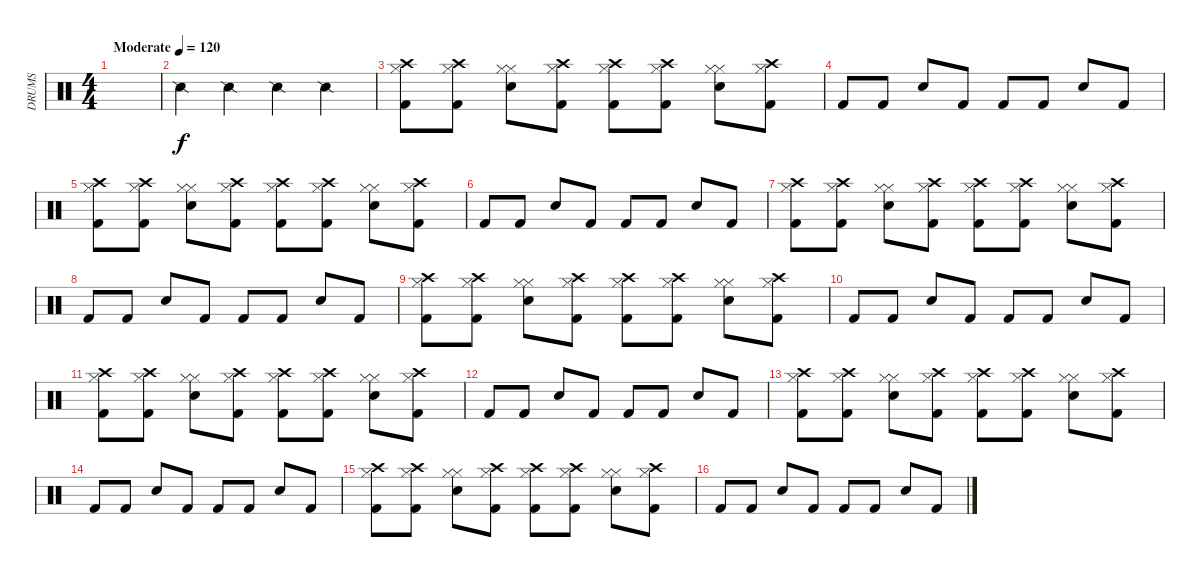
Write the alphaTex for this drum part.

\track ("DRUMS" "DRUMS") {instrument percussion}
\staff {score}
\articulation defaults
\ts (4 4)
\tempo (120 "Moderate")
\clef neutral
\ks c
|
"Snare (side stick) 2".4 "Snare (side stick) 2".4 "Snare (side stick) 2".4 "Snare (side stick) 2".4 |
("Kick (hit) 2" "Crash high (hit)" "Hi-Hat (closed)").8 ("Kick (hit) 2" "Crash high (hit)" "Hi-Hat (closed)").8 ("Snare (hit) 2" "Hi-Hat (closed)" "Hi-Hat (closed)").8 ("Kick (hit) 2" "Crash high (hit)" "Hi-Hat (closed)").8 ("Kick (hit) 2" "Crash high (hit)" "Hi-Hat (closed)").8 ("Kick (hit) 2" "Crash high (hit)" "Hi-Hat (closed)").8 ("Snare (hit) 2" "Hi-Hat (closed)" "Hi-Hat (closed)").8 ("Kick (hit) 2" "Crash high (hit)" "Hi-Hat (closed)").8 |
"Kick (hit) 2".8 "Kick (hit) 2".8 "Snare (hit) 2".8 "Kick (hit) 2".8 "Kick (hit) 2".8 "Kick (hit) 2".8 "Snare (hit) 2".8 "Kick (hit) 2".8 |
("Kick (hit) 2" "Crash high (hit)" "Hi-Hat (closed)").8 ("Kick (hit) 2" "Crash high (hit)" "Hi-Hat (closed)").8 ("Snare (hit) 2" "Hi-Hat (closed)" "Hi-Hat (closed)").8 ("Kick (hit) 2" "Crash high (hit)" "Hi-Hat (closed)").8 ("Kick (hit) 2" "Crash high (hit)" "Hi-Hat (closed)").8 ("Kick (hit) 2" "Crash high (hit)" "Hi-Hat (closed)").8 ("Snare (hit) 2" "Hi-Hat (closed)" "Hi-Hat (closed)").8 ("Kick (hit) 2" "Crash high (hit)" "Hi-Hat (closed)").8 |
"Kick (hit) 2".8 "Kick (hit) 2".8 "Snare (hit) 2".8 "Kick (hit) 2".8 "Kick (hit) 2".8 "Kick (hit) 2".8 "Snare (hit) 2".8 "Kick (hit) 2".8 |
("Kick (hit) 2" "Crash high (hit)" "Hi-Hat (closed)").8 ("Kick (hit) 2" "Crash high (hit)" "Hi-Hat (closed)").8 ("Snare (hit) 2" "Hi-Hat (closed)" "Hi-Hat (closed)").8 ("Kick (hit) 2" "Crash high (hit)" "Hi-Hat (closed)").8 ("Kick (hit) 2" "Crash high (hit)" "Hi-Hat (closed)").8 ("Kick (hit) 2" "Crash high (hit)" "Hi-Hat (closed)").8 ("Snare (hit) 2" "Hi-Hat (closed)" "Hi-Hat (closed)").8 ("Kick (hit) 2" "Crash high (hit)" "Hi-Hat (closed)").8 |
"Kick (hit) 2".8 "Kick (hit) 2".8 "Snare (hit) 2".8 "Kick (hit) 2".8 "Kick (hit) 2".8 "Kick (hit) 2".8 "Snare (hit) 2".8 "Kick (hit) 2".8 |
("Kick (hit) 2" "Crash high (hit)" "Hi-Hat (closed)").8 ("Kick (hit) 2" "Crash high (hit)" "Hi-Hat (closed)").8 ("Snare (hit) 2" "Hi-Hat (closed)" "Hi-Hat (closed)").8 ("Kick (hit) 2" "Crash high (hit)" "Hi-Hat (closed)").8 ("Kick (hit) 2" "Crash high (hit)" "Hi-Hat (closed)").8 ("Kick (hit) 2" "Crash high (hit)" "Hi-Hat (closed)").8 ("Snare (hit) 2" "Hi-Hat (closed)" "Hi-Hat (closed)").8 ("Kick (hit) 2" "Crash high (hit)" "Hi-Hat (closed)").8 |
"Kick (hit) 2".8 "Kick (hit) 2".8 "Snare (hit) 2".8 "Kick (hit) 2".8 "Kick (hit) 2".8 "Kick (hit) 2".8 "Snare (hit) 2".8 "Kick (hit) 2".8 |
("Kick (hit) 2" "Crash high (hit)" "Hi-Hat (closed)").8 ("Kick (hit) 2" "Crash high (hit)" "Hi-Hat (closed)").8 ("Snare (hit) 2" "Hi-Hat (closed)" "Hi-Hat (closed)").8 ("Kick (hit) 2" "Crash high (hit)" "Hi-Hat (closed)").8 ("Kick (hit) 2" "Crash high (hit)" "Hi-Hat (closed)").8 ("Kick (hit) 2" "Crash high (hit)" "Hi-Hat (closed)").8 ("Snare (hit) 2" "Hi-Hat (closed)" "Hi-Hat (closed)").8 ("Kick (hit) 2" "Crash high (hit)" "Hi-Hat (closed)").8 |
"Kick (hit) 2".8 "Kick (hit) 2".8 "Snare (hit) 2".8 "Kick (hit) 2".8 "Kick (hit) 2".8 "Kick (hit) 2".8 "Snare (hit) 2".8 "Kick (hit) 2".8 |
("Kick (hit) 2" "Crash high (hit)" "Hi-Hat (closed)").8 ("Kick (hit) 2" "Crash high (hit)" "Hi-Hat (closed)").8 ("Snare (hit) 2" "Hi-Hat (closed)" "Hi-Hat (closed)").8 ("Kick (hit) 2" "Crash high (hit)" "Hi-Hat (closed)").8 ("Kick (hit) 2" "Crash high (hit)" "Hi-Hat (closed)").8 ("Kick (hit) 2" "Crash high (hit)" "Hi-Hat (closed)").8 ("Snare (hit) 2" "Hi-Hat (closed)" "Hi-Hat (closed)").8 ("Kick (hit) 2" "Crash high (hit)" "Hi-Hat (closed)").8 |
"Kick (hit) 2".8 "Kick (hit) 2".8 "Snare (hit) 2".8 "Kick (hit) 2".8 "Kick (hit) 2".8 "Kick (hit) 2".8 "Snare (hit) 2".8 "Kick (hit) 2".8 |
("Kick (hit) 2" "Crash high (hit)" "Hi-Hat (closed)").8 ("Kick (hit) 2" "Crash high (hit)" "Hi-Hat (closed)").8 ("Snare (hit) 2" "Hi-Hat (closed)" "Hi-Hat (closed)").8 ("Kick (hit) 2" "Crash high (hit)" "Hi-Hat (closed)").8 ("Kick (hit) 2" "Crash high (hit)" "Hi-Hat (closed)").8 ("Kick (hit) 2" "Crash high (hit)" "Hi-Hat (closed)").8 ("Snare (hit) 2" "Hi-Hat (closed)" "Hi-Hat (closed)").8 ("Kick (hit) 2" "Crash high (hit)" "Hi-Hat (closed)").8 |
"Kick (hit) 2".8 "Kick (hit) 2".8 "Snare (hit) 2".8 "Kick (hit) 2".8 "Kick (hit) 2".8 "Kick (hit) 2".8 "Snare (hit) 2".8 "Kick (hit) 2".8
